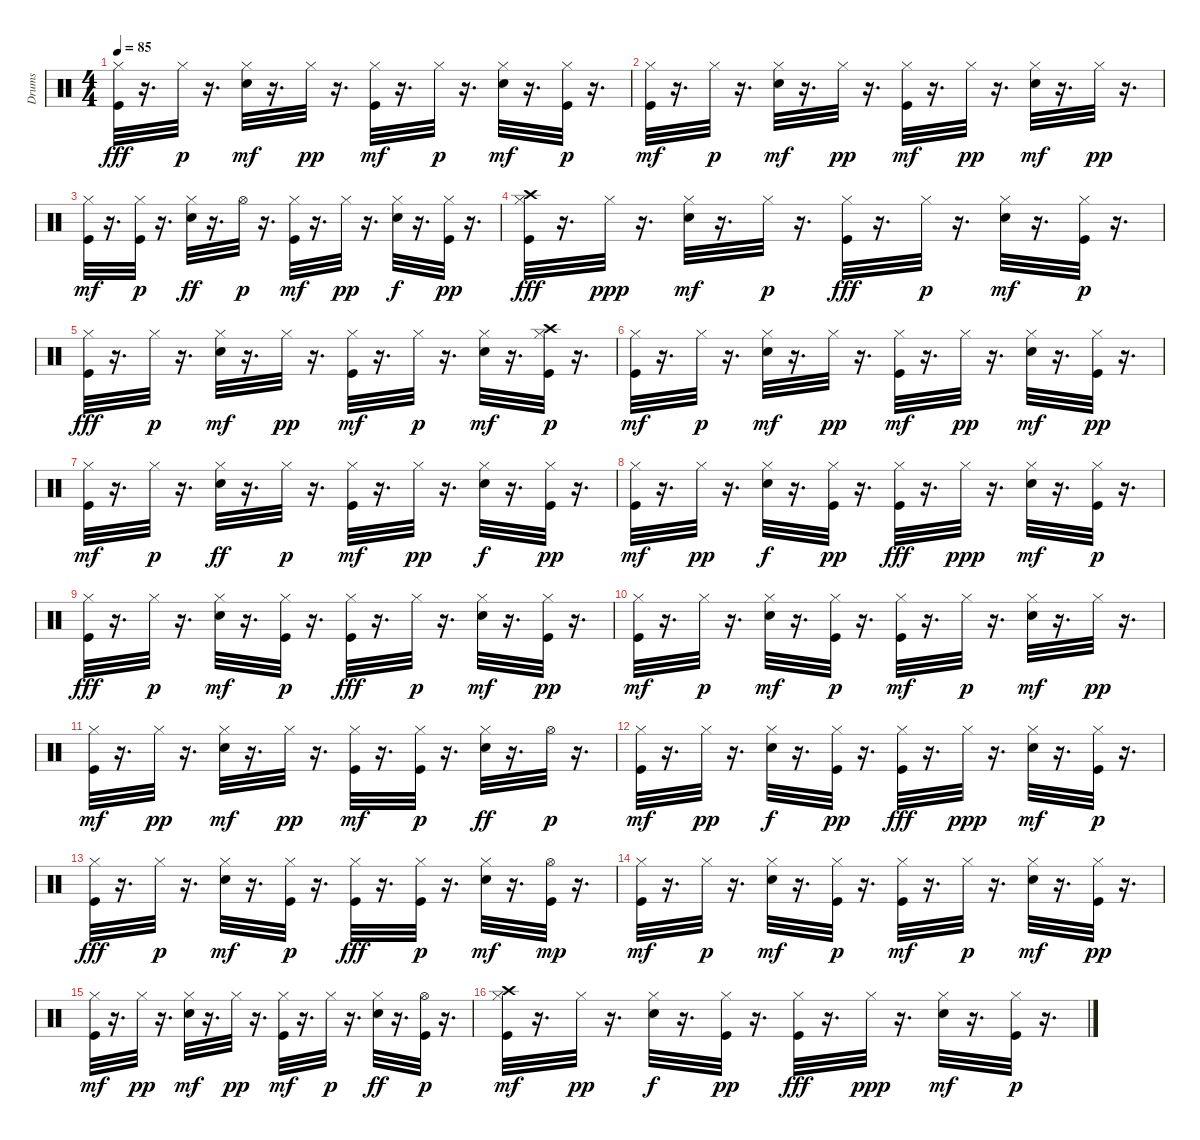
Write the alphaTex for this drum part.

\track ("Drums" "Drums") {instrument percussion}
\staff {score}
\articulation defaults
\ts (4 4)
\tempo 85
\clef neutral
\ks c
("Kick (hit)" "Hi-Hat (closed)").32{dy fff} r.16{d} "Hi-Hat (closed)".32{dy p} r.16{d} ("Electric Snare (hit)" "Hi-Hat (closed)").32{dy mf} r.16{d} "Hi-Hat (closed)".32{dy pp} r.16{d} ("Kick (hit)" "Hi-Hat (closed)").32{dy mf} r.16{d} "Hi-Hat (closed)".32{dy p} r.16{d} ("Electric Snare (hit)" "Hi-Hat (closed)").32{dy mf} r.16{d} ("Kick (hit)" "Hi-Hat (closed)").32{dy p} r.16{d} |
("Kick (hit)" "Hi-Hat (closed)").32{dy mf} r.16{d} "Hi-Hat (closed)".32{dy p} r.16{d} ("Electric Snare (hit)" "Hi-Hat (closed)").32{dy mf} r.16{d} "Hi-Hat (closed)".32{dy pp} r.16{d} ("Kick (hit)" "Hi-Hat (closed)").32{dy mf} r.16{d} "Hi-Hat (closed)".32{dy pp} r.16{d} ("Electric Snare (hit)" "Hi-Hat (closed)").32{dy mf} r.16{d} "Hi-Hat (closed)".32{dy pp} r.16{d} |
("Kick (hit)" "Hi-Hat (closed)").32{dy mf} r.16{d} ("Kick (hit)" "Hi-Hat (closed)").32{dy p} r.16{d} ("Electric Snare (hit)" "Hi-Hat (closed)").32{dy ff} r.16{d} "Hi-Hat (open)".32{dy p} r.16{d} ("Kick (hit)" "Hi-Hat (closed)").32{dy mf} r.16{d} "Hi-Hat (closed)".32{dy pp} r.16{d} ("Electric Snare (hit)" "Hi-Hat (closed)").32{dy f} r.16{d} ("Kick (hit)" "Hi-Hat (closed)").32{dy pp} r.16{d} |
("Kick (hit)" "Crash high (hit)" "Hi-Hat (closed)").32{dy fff} r.16{d} "Hi-Hat (closed)".32{dy ppp} r.16{d} ("Electric Snare (hit)" "Hi-Hat (closed)").32{dy mf} r.16{d} "Hi-Hat (closed)".32{dy p} r.16{d} ("Kick (hit)" "Hi-Hat (closed)").32{dy fff} r.16{d} "Hi-Hat (closed)".32{dy p} r.16{d} ("Electric Snare (hit)" "Hi-Hat (closed)").32{dy mf} r.16{d} ("Kick (hit)" "Hi-Hat (closed)").32{dy p} r.16{d} |
("Kick (hit)" "Hi-Hat (closed)").32{dy fff} r.16{d} "Hi-Hat (closed)".32{dy p} r.16{d} ("Electric Snare (hit)" "Hi-Hat (closed)").32{dy mf} r.16{d} "Hi-Hat (closed)".32{dy pp} r.16{d} ("Kick (hit)" "Hi-Hat (closed)").32{dy mf} r.16{d} "Hi-Hat (closed)".32{dy p} r.16{d} ("Electric Snare (hit)" "Hi-Hat (closed)").32{dy mf} r.16{d} ("Kick (hit)" "Crash high (hit)" "Hi-Hat (closed)").32{dy p} r.16{d} |
("Kick (hit)" "Hi-Hat (closed)").32{dy mf} r.16{d} "Hi-Hat (closed)".32{dy p} r.16{d} ("Electric Snare (hit)" "Hi-Hat (closed)").32{dy mf} r.16{d} "Hi-Hat (closed)".32{dy pp} r.16{d} ("Kick (hit)" "Hi-Hat (closed)").32{dy mf} r.16{d} "Hi-Hat (closed)".32{dy pp} r.16{d} ("Electric Snare (hit)" "Hi-Hat (closed)").32{dy mf} r.16{d} ("Kick (hit)" "Hi-Hat (closed)").32{dy pp} r.16{d} |
("Kick (hit)" "Hi-Hat (closed)").32{dy mf} r.16{d} "Hi-Hat (closed)".32{dy p} r.16{d} ("Electric Snare (hit)" "Hi-Hat (closed)").32{dy ff} r.16{d} "Hi-Hat (closed)".32{dy p} r.16{d} ("Kick (hit)" "Hi-Hat (closed)").32{dy mf} r.16{d} "Hi-Hat (closed)".32{dy pp} r.16{d} ("Electric Snare (hit)" "Hi-Hat (closed)").32{dy f} r.16{d} ("Kick (hit)" "Hi-Hat (closed)").32{dy pp} r.16{d} |
("Kick (hit)" "Hi-Hat (closed)").32{dy mf} r.16{d} "Hi-Hat (closed)".32{dy pp} r.16{d} ("Electric Snare (hit)" "Hi-Hat (closed)").32{dy f} r.16{d} ("Kick (hit)" "Hi-Hat (closed)").32{dy pp} r.16{d} ("Kick (hit)" "Hi-Hat (closed)").32{dy fff} r.16{d} "Hi-Hat (closed)".32{dy ppp} r.16{d} ("Electric Snare (hit)" "Hi-Hat (closed)").32{dy mf} r.16{d} ("Kick (hit)" "Hi-Hat (closed)").32{dy p} r.16{d} |
("Kick (hit)" "Hi-Hat (closed)").32{dy fff} r.16{d} "Hi-Hat (closed)".32{dy p} r.16{d} ("Electric Snare (hit)" "Hi-Hat (closed)").32{dy mf} r.16{d} ("Kick (hit)" "Hi-Hat (closed)").32{dy p} r.16{d} ("Kick (hit)" "Hi-Hat (closed)").32{dy fff} r.16{d} "Hi-Hat (closed)".32{dy p} r.16{d} ("Electric Snare (hit)" "Hi-Hat (closed)").32{dy mf} r.16{d} ("Kick (hit)" "Hi-Hat (closed)").32{dy pp} r.16{d} |
("Kick (hit)" "Hi-Hat (closed)").32{dy mf} r.16{d} "Hi-Hat (closed)".32{dy p} r.16{d} ("Electric Snare (hit)" "Hi-Hat (closed)").32{dy mf} r.16{d} ("Kick (hit)" "Hi-Hat (closed)").32{dy p} r.16{d} ("Kick (hit)" "Hi-Hat (closed)").32{dy mf} r.16{d} "Hi-Hat (closed)".32{dy p} r.16{d} ("Electric Snare (hit)" "Hi-Hat (closed)").32{dy mf} r.16{d} "Hi-Hat (closed)".32{dy pp} r.16{d} |
("Kick (hit)" "Hi-Hat (closed)").32{dy mf} r.16{d} "Hi-Hat (closed)".32{dy pp} r.16{d} ("Electric Snare (hit)" "Hi-Hat (closed)").32{dy mf} r.16{d} "Hi-Hat (closed)".32{dy pp} r.16{d} ("Kick (hit)" "Hi-Hat (closed)").32{dy mf} r.16{d} ("Kick (hit)" "Hi-Hat (closed)").32{dy p} r.16{d} ("Electric Snare (hit)" "Hi-Hat (closed)").32{dy ff} r.16{d} "Hi-Hat (open)".32{dy p} r.16{d} |
("Kick (hit)" "Hi-Hat (closed)").32{dy mf} r.16{d} "Hi-Hat (closed)".32{dy pp} r.16{d} ("Electric Snare (hit)" "Hi-Hat (closed)").32{dy f} r.16{d} ("Kick (hit)" "Hi-Hat (closed)").32{dy pp} r.16{d} ("Kick (hit)" "Hi-Hat (closed)").32{dy fff} r.16{d} "Hi-Hat (closed)".32{dy ppp} r.16{d} ("Electric Snare (hit)" "Hi-Hat (closed)").32{dy mf} r.16{d} ("Kick (hit)" "Hi-Hat (closed)").32{dy p} r.16{d} |
("Kick (hit)" "Hi-Hat (closed)").32{dy fff} r.16{d} "Hi-Hat (closed)".32{dy p} r.16{d} ("Electric Snare (hit)" "Hi-Hat (closed)").32{dy mf} r.16{d} ("Kick (hit)" "Hi-Hat (closed)").32{dy p} r.16{d} ("Kick (hit)" "Hi-Hat (closed)").32{dy fff} r.16{d} ("Kick (hit)" "Hi-Hat (closed)").32{dy p} r.16{d} ("Electric Snare (hit)" "Hi-Hat (closed)").32{dy mf} r.16{d} ("Kick (hit)" "Hi-Hat (open)").32{dy mp} r.16{d} |
("Kick (hit)" "Hi-Hat (closed)").32{dy mf} r.16{d} "Hi-Hat (closed)".32{dy p} r.16{d} ("Electric Snare (hit)" "Hi-Hat (closed)").32{dy mf} r.16{d} ("Kick (hit)" "Hi-Hat (closed)").32{dy p} r.16{d} ("Kick (hit)" "Hi-Hat (closed)").32{dy mf} r.16{d} "Hi-Hat (closed)".32{dy p} r.16{d} ("Electric Snare (hit)" "Hi-Hat (closed)").32{dy mf} r.16{d} ("Kick (hit)" "Hi-Hat (closed)").32{dy pp} r.16{d} |
("Kick (hit)" "Hi-Hat (closed)").32{dy mf} r.16{d} "Hi-Hat (closed)".32{dy pp} r.16{d} ("Electric Snare (hit)" "Hi-Hat (closed)").32{dy mf} r.16{d} "Hi-Hat (closed)".32{dy pp} r.16{d} ("Kick (hit)" "Hi-Hat (closed)").32{dy mf} r.16{d} "Hi-Hat (closed)".32{dy p} r.16{d} ("Electric Snare (hit)" "Hi-Hat (closed)").32{dy ff} r.16{d} ("Kick (hit)" "Hi-Hat (open)").32{dy p} r.16{d} |
("Kick (hit)" "Crash high (hit)" "Hi-Hat (closed)").32{dy mf} r.16{d} "Hi-Hat (closed)".32{dy pp} r.16{d} ("Electric Snare (hit)" "Hi-Hat (closed)").32{dy f} r.16{d} ("Kick (hit)" "Hi-Hat (closed)").32{dy pp} r.16{d} ("Kick (hit)" "Hi-Hat (closed)").32{dy fff} r.16{d} "Hi-Hat (closed)".32{dy ppp} r.16{d} ("Electric Snare (hit)" "Hi-Hat (closed)").32{dy mf} r.16{d} ("Kick (hit)" "Hi-Hat (closed)").32{dy p} r.16{d}
